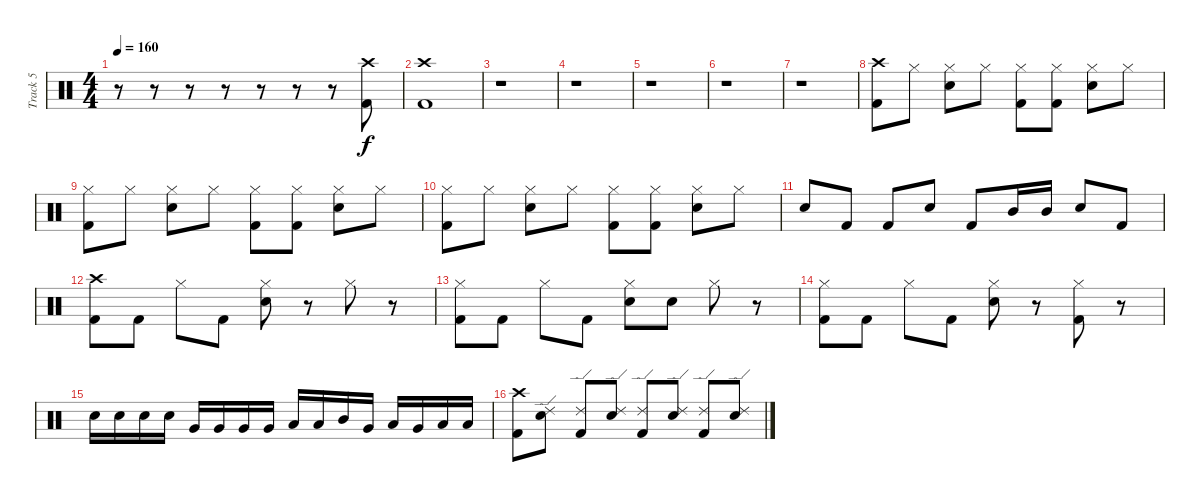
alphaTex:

\track ("Track 5" "Track 5") {instrument percussion}
\staff {score}
\articulation defaults
\ts (4 4)
\tempo 160
\clef neutral
\ks c
r.8{dy f} r.8 r.8 r.8 r.8 r.8 r.8 ("Crash high (hit)" "Kick (hit) 2").8 |
("Crash high (hit)" "Kick (hit) 2").1 |
r.1 |
r.1 |
r.1 |
r.1 |
r.1 |
("Crash high (hit)" "Kick (hit) 2").8 "Hi-Hat (closed)".8 ("Hi-Hat (closed)" "Electric Snare (hit)").8 "Hi-Hat (closed)".8 ("Hi-Hat (closed)" "Kick (hit) 2").8 ("Hi-Hat (closed)" "Kick (hit) 2").8 ("Hi-Hat (closed)" "Electric Snare (hit)").8 "Hi-Hat (closed)".8 |
("Hi-Hat (closed)" "Kick (hit) 2").8 "Hi-Hat (closed)".8 ("Hi-Hat (closed)" "Electric Snare (hit)").8 "Hi-Hat (closed)".8 ("Hi-Hat (closed)" "Kick (hit) 2").8 ("Hi-Hat (closed)" "Kick (hit) 2").8 ("Hi-Hat (closed)" "Electric Snare (hit)").8 "Hi-Hat (closed)".8 |
("Hi-Hat (closed)" "Kick (hit) 2").8 "Hi-Hat (closed)".8 ("Hi-Hat (closed)" "Electric Snare (hit)").8 "Hi-Hat (closed)".8 ("Hi-Hat (closed)" "Kick (hit) 2").8 ("Hi-Hat (closed)" "Kick (hit) 2").8 ("Hi-Hat (closed)" "Electric Snare (hit)").8 "Hi-Hat (closed)".8 |
"Electric Snare (hit)".8 "Kick (hit) 2".8 "Kick (hit) 2".8 "Electric Snare (hit)".8 "Kick (hit) 2".8 "Mid Tom (hit)".16 "Mid Tom (hit)".16 "Electric Snare (hit)".8 "Kick (hit) 2".8 |
("Crash high (hit)" "Kick (hit) 2").8 "Kick (hit) 2".8 "Hi-Hat (closed)".8 "Kick (hit) 2".8 ("Hi-Hat (closed)" "Electric Snare (hit)").8 r.8 "Hi-Hat (closed)".8 r.8 |
("Hi-Hat (closed)" "Kick (hit) 2").8 "Kick (hit) 2".8 "Hi-Hat (closed)".8 "Kick (hit) 2".8 ("Hi-Hat (closed)" "Electric Snare (hit)").8 "Electric Snare (hit)".8 "Hi-Hat (closed)".8 r.8 |
("Hi-Hat (closed)" "Kick (hit) 2").8 "Kick (hit) 2".8 "Hi-Hat (closed)".8 "Kick (hit) 2".8 ("Hi-Hat (closed)" "Electric Snare (hit)").8 r.8 ("Hi-Hat (closed)" "Kick (hit) 2").8 r.8 |
"Electric Snare (hit)".16 "Electric Snare (hit)".16 "Electric Snare (hit)".16 "Electric Snare (hit)".16 "Very Low Tom (hit)".16 "Very Low Tom (hit)".16 "Very Low Tom (hit)".16 "Very Low Tom (hit)".16 "Low Floor Tom (hit)".16 "Low Floor Tom (hit)".16 "Mid Tom (hit)".16 "Very Low Tom (hit)".16 "Low Floor Tom (hit)".16 "Very Low Tom (hit)".16 "Low Floor Tom (hit)".16 "Low Floor Tom (hit)".16 |
("Crash high (hit)" "Kick (hit) 2").8 ("Ride (edge) 2" "Electric Snare (hit)").8 ("Ride (edge) 2" "Kick (hit) 2").8 ("Ride (edge) 2" "Electric Snare (hit)").8 ("Ride (edge) 2" "Kick (hit) 2").8 ("Ride (edge) 2" "Electric Snare (hit)").8 ("Ride (edge) 2" "Kick (hit) 2").8 ("Ride (edge) 2" "Electric Snare (hit)").8
